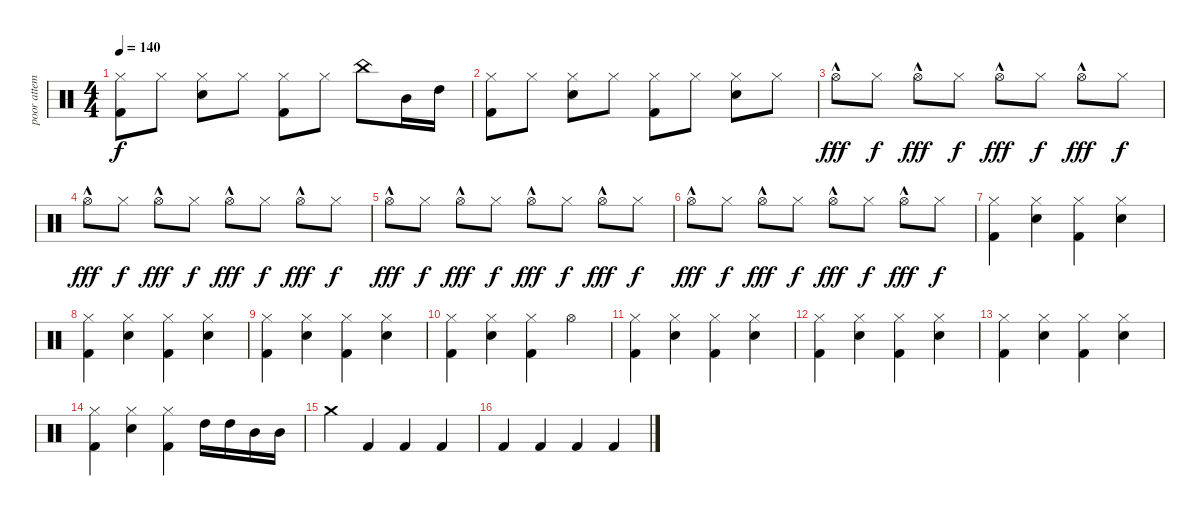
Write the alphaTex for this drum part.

\track ("poor attempt at zac's part" "poor attem") {instrument percussion}
\staff {score}
\articulation defaults
\ts (4 4)
\tempo 140
\clef neutral
\ks c
("Kick (hit) 2" "Hi-Hat (closed)").8{dy f} "Hi-Hat (closed)".8 ("Snare (hit) 2" "Hi-Hat (closed)").8 "Hi-Hat (closed)".8 ("Kick (hit) 2" "Hi-Hat (closed)").8 "Hi-Hat (closed)".8 "China (hit)".8 "Mid Tom (hit)".16 "High Tom (hit)".16 |
("Kick (hit) 2" "Hi-Hat (closed)").8 "Hi-Hat (closed)".8 ("Snare (hit) 2" "Hi-Hat (closed)").8 "Hi-Hat (closed)".8 ("Kick (hit) 2" "Hi-Hat (closed)").8 "Hi-Hat (closed)".8 ("Snare (hit) 2" "Hi-Hat (closed)").8 "Hi-Hat (closed)".8 |
"Hi-Hat (open)"{hac}.8{dy fff} "Hi-Hat (closed)".8{dy f} "Hi-Hat (open)"{hac}.8{dy fff} "Hi-Hat (closed)".8{dy f} "Hi-Hat (open)"{hac}.8{dy fff} "Hi-Hat (closed)".8{dy f} "Hi-Hat (open)"{hac}.8{dy fff} "Hi-Hat (closed)".8{dy f} |
"Hi-Hat (open)"{hac}.8{dy fff} "Hi-Hat (closed)".8{dy f} "Hi-Hat (open)"{hac}.8{dy fff} "Hi-Hat (closed)".8{dy f} "Hi-Hat (open)"{hac}.8{dy fff} "Hi-Hat (closed)".8{dy f} "Hi-Hat (open)"{hac}.8{dy fff} "Hi-Hat (closed)".8{dy f} |
"Hi-Hat (open)"{hac}.8{dy fff} "Hi-Hat (closed)".8{dy f} "Hi-Hat (open)"{hac}.8{dy fff} "Hi-Hat (closed)".8{dy f} "Hi-Hat (open)"{hac}.8{dy fff} "Hi-Hat (closed)".8{dy f} "Hi-Hat (open)"{hac}.8{dy fff} "Hi-Hat (closed)".8{dy f} |
"Hi-Hat (open)"{hac}.8{dy fff} "Hi-Hat (closed)".8{dy f} "Hi-Hat (open)"{hac}.8{dy fff} "Hi-Hat (closed)".8{dy f} "Hi-Hat (open)"{hac}.8{dy fff} "Hi-Hat (closed)".8{dy f} "Hi-Hat (open)"{hac}.8{dy fff} "Hi-Hat (closed)".8{dy f} |
("Kick (hit) 2" "Hi-Hat (closed)").4 ("Snare (hit) 2" "Hi-Hat (closed)").4 ("Kick (hit) 2" "Hi-Hat (closed)").4 ("Snare (hit) 2" "Hi-Hat (closed)").4 |
("Kick (hit) 2" "Hi-Hat (closed)").4 ("Snare (hit) 2" "Hi-Hat (closed)").4 ("Kick (hit) 2" "Hi-Hat (closed)").4 ("Snare (hit) 2" "Hi-Hat (closed)").4 |
("Kick (hit) 2" "Hi-Hat (closed)").4 ("Snare (hit) 2" "Hi-Hat (closed)").4 ("Kick (hit) 2" "Hi-Hat (closed)").4 ("Snare (hit) 2" "Hi-Hat (closed)").4 |
("Kick (hit) 2" "Hi-Hat (closed)").4 ("Snare (hit) 2" "Hi-Hat (closed)").4 ("Kick (hit) 2" "Hi-Hat (closed)").4 "Hi-Hat (open)".4 |
("Kick (hit) 2" "Hi-Hat (closed)").4 ("Snare (hit) 2" "Hi-Hat (closed)").4 ("Kick (hit) 2" "Hi-Hat (closed)").4 ("Snare (hit) 2" "Hi-Hat (closed)").4 |
("Kick (hit) 2" "Hi-Hat (closed)").4 ("Snare (hit) 2" "Hi-Hat (closed)").4 ("Kick (hit) 2" "Hi-Hat (closed)").4 ("Snare (hit) 2" "Hi-Hat (closed)").4 |
("Kick (hit) 2" "Hi-Hat (closed)").4 ("Snare (hit) 2" "Hi-Hat (closed)").4 ("Kick (hit) 2" "Hi-Hat (closed)").4 ("Snare (hit) 2" "Hi-Hat (closed)").4 |
("Kick (hit) 2" "Hi-Hat (closed)").4 ("Snare (hit) 2" "Hi-Hat (closed)").4 ("Kick (hit) 2" "Hi-Hat (closed)").4 "High Tom (hit)".16 "High Tom (hit)".16 "Mid Tom (hit)".16 "Mid Tom (hit)".16 |
"Crash medium (hit)".4 "Kick (hit) 2".4 "Kick (hit) 2".4 "Kick (hit) 2".4 |
"Kick (hit) 2".4 "Kick (hit) 2".4 "Kick (hit) 2".4 "Kick (hit) 2".4
